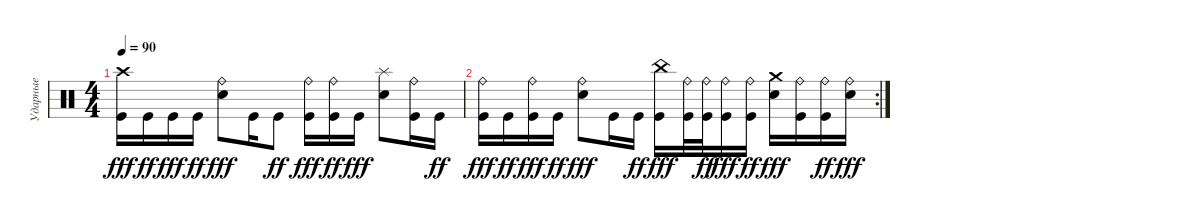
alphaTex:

\track ("Ударные" "Ударные") {instrument percussion}
\staff {score}
\articulation defaults
\ts (4 4)
\tempo 90
\clef neutral
\ks c
("Crash high (hit)" "Kick (hit)").16{dy fff} "Kick (hit)".16{dy ff} "Kick (hit)".16{dy fff} "Kick (hit)".16{dy ff} ("Ride (bell)" "Electric Snare (hit)").8{dy fff} "Kick (hit)".16 "Kick (hit)".8{dy ff} ("Ride (bell)" "Kick (hit)").16{dy fff} ("Ride (bell)" "Kick (hit)").16{dy ff} "Kick (hit)".16{dy fff} ("Splash (hit)" "Electric Snare (hit)").8 ("Ride (bell)" "Kick (hit)").16 "Kick (hit)".16{dy ff} |
\rc 2
("Ride (bell)" "Kick (hit)").16{dy fff} "Kick (hit)".16{dy ff} ("Ride (bell)" "Kick (hit)").16{dy fff} "Kick (hit)".16{dy ff} ("Ride (bell)" "Electric Snare (hit)").8{dy fff} "Kick (hit)".16 "Kick (hit)".16{dy ff} ("China (hit)" "Kick (hit)").16{dy fff} ("Ride (bell)" "Kick (hit)").32 ("Ride (bell)" "Kick (hit)").32{dy ff} ("Ride (bell)" "Kick (hit)").16{dy fff} ("Ride (bell)" "Kick (hit)").16{dy ff} ("Crash medium (hit)" "Electric Snare (hit)").16{dy fff} ("Ride (bell)" "Kick (hit)").16 ("Ride (bell)" "Kick (hit)").16{dy ff} ("Ride (bell)" "Electric Snare (hit)").16{dy fff}
